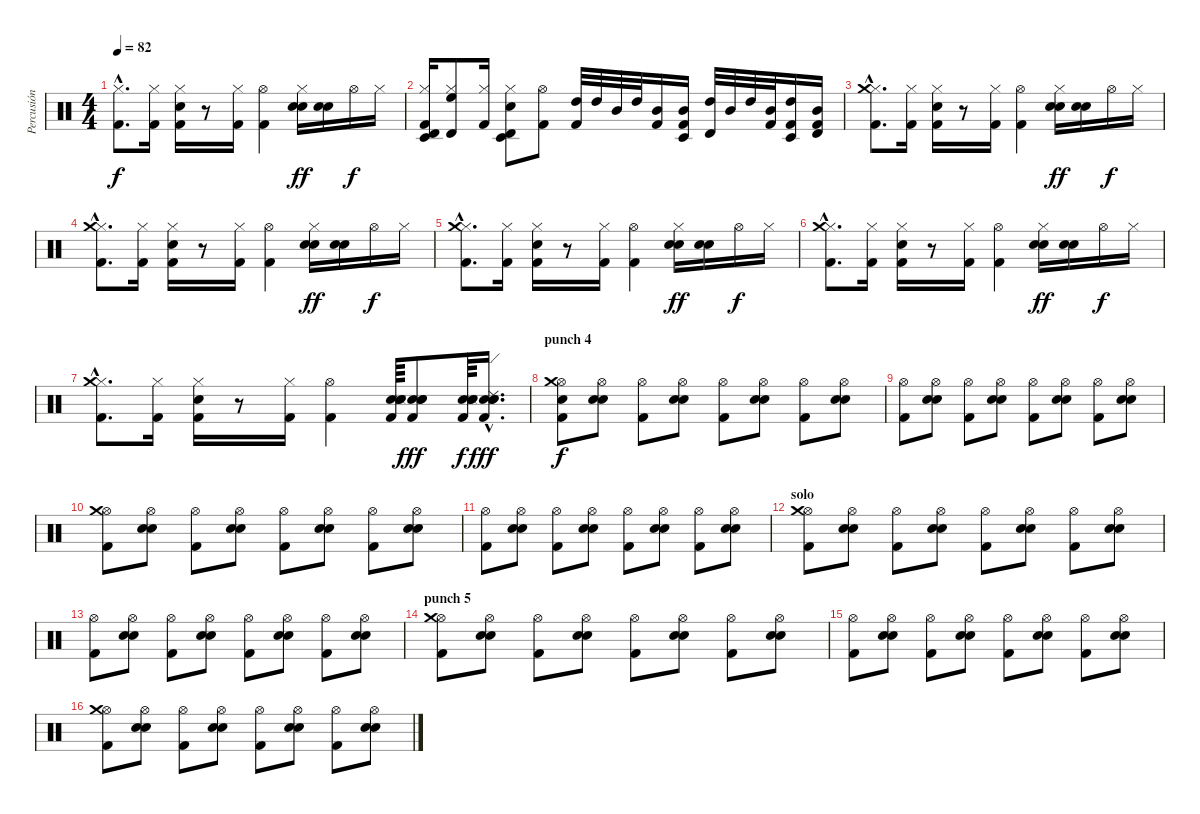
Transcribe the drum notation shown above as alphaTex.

\track ("Percusión" "Percusión") {instrument percussion}
\staff {score}
\articulation defaults
\ts (4 4)
\tempo 82
\clef neutral
\ks c
("Hi-Hat (closed)"{hac} "Kick (hit) 2"{hac}).8{d dy f} ("Hi-Hat (closed)" "Kick (hit) 2").16 ("Hi-Hat (closed)" "Electric Snare (hit)" "Kick (hit) 2").16 r.8 ("Hi-Hat (closed)" "Kick (hit) 2").16 ("Hi-Hat (open)" "Kick (hit) 2").4 ("Hi-Hat (closed)" "Electric Snare (hit)" "Electric Snare (hit)").16{dy ff} ("Electric Snare (hit)" "Electric Snare (hit)").16 "Hi-Hat (open)".16{dy f} "Hi-Hat (closed)".16 |
("Hi-Hat (closed)" "Timbale high (hit)" "Timbale low (hit)" "Kick (hit) 2").16 ("Hi-Hat (closed)" "Timbale high (hit)" "High Floor Tom (hit)").8 ("Hi-Hat (closed)" "Kick (hit) 2").16 ("Hi-Hat (closed)" "Timbale high (hit)" "Timbale low (hit)" "Snare (hit) 2").8 ("Hi-Hat (open)" "Kick (hit) 2").8 ("High Tom (hit)" "Kick (hit) 2").32 "High Tom (hit)".32 "Mid Tom (hit)".32 "High Tom (hit)".32 ("Mid Tom (hit)" "Kick (hit) 2").16 ("Timbale low (hit)" "Mid Tom (hit)" "Kick (hit) 2").16 ("Timbale high (hit)" "High Tom (hit)").32 "Mid Tom (hit)".32 "High Tom (hit)".32 ("Mid Tom (hit)" "Kick (hit) 2").32 ("Timbale low (hit)" "High Tom (hit)" "Kick (hit) 2").16 ("Timbale high (hit)" "Mid Tom (hit)" "Kick (hit) 2").16 |
("Hi-Hat (closed)"{hac} "Crash medium (hit)"{hac} "Kick (hit) 2"{hac}).8{d} ("Hi-Hat (closed)" "Kick (hit) 2").16 ("Hi-Hat (closed)" "Electric Snare (hit)" "Kick (hit) 2").16 r.8 ("Hi-Hat (closed)" "Kick (hit) 2").16 ("Hi-Hat (open)" "Kick (hit) 2").4 ("Hi-Hat (closed)" "Electric Snare (hit)" "Electric Snare (hit)").16{dy ff} ("Electric Snare (hit)" "Electric Snare (hit)").16 "Hi-Hat (open)".16{dy f} "Hi-Hat (closed)".16 |
("Hi-Hat (closed)"{hac} "Crash medium (hit)"{hac} "Kick (hit) 2"{hac}).8{d} ("Hi-Hat (closed)" "Kick (hit) 2").16 ("Hi-Hat (closed)" "Electric Snare (hit)" "Kick (hit) 2").16 r.8 ("Hi-Hat (closed)" "Kick (hit) 2").16 ("Hi-Hat (open)" "Kick (hit) 2").4 ("Hi-Hat (closed)" "Electric Snare (hit)" "Electric Snare (hit)").16{dy ff} ("Electric Snare (hit)" "Electric Snare (hit)").16 "Hi-Hat (open)".16{dy f} "Hi-Hat (closed)".16 |
("Hi-Hat (closed)"{hac} "Crash medium (hit)"{hac} "Kick (hit) 2"{hac}).8{d} ("Hi-Hat (closed)" "Kick (hit) 2").16 ("Hi-Hat (closed)" "Electric Snare (hit)" "Kick (hit) 2").16 r.8 ("Hi-Hat (closed)" "Kick (hit) 2").16 ("Hi-Hat (open)" "Kick (hit) 2").4 ("Hi-Hat (closed)" "Electric Snare (hit)" "Electric Snare (hit)").16{dy ff} ("Electric Snare (hit)" "Electric Snare (hit)").16 "Hi-Hat (open)".16{dy f} "Hi-Hat (closed)".16 |
("Hi-Hat (closed)"{hac} "Crash medium (hit)"{hac} "Kick (hit) 2"{hac}).8{d} ("Hi-Hat (closed)" "Kick (hit) 2").16 ("Hi-Hat (closed)" "Electric Snare (hit)" "Kick (hit) 2").16 r.8 ("Hi-Hat (closed)" "Kick (hit) 2").16 ("Hi-Hat (open)" "Kick (hit) 2").4 ("Hi-Hat (closed)" "Electric Snare (hit)" "Electric Snare (hit)").16{dy ff} ("Electric Snare (hit)" "Electric Snare (hit)").16 "Hi-Hat (open)".16{dy f} "Hi-Hat (closed)".16 |
("Hi-Hat (closed)"{hac} "Crash medium (hit)"{hac} "Kick (hit) 2"{hac}).8{d} ("Hi-Hat (closed)" "Kick (hit) 2").16 ("Hi-Hat (closed)" "Electric Snare (hit)" "Kick (hit) 2").16 r.8 ("Hi-Hat (closed)" "Kick (hit) 2").16 ("Hi-Hat (open)" "Kick (hit) 2").4 ("Snare (hit) 2" "Electric Snare (hit)" "Kick (hit) 2" "Snare (side stick) 3" "Electric Snare (hit)").64 ("Snare (hit) 2" "Electric Snare (hit)" "Kick (hit) 2" "Electric Snare (hit)").8{dy fff} ("Snare (hit) 2" "Electric Snare (hit)" "Kick (hit) 2" "Snare (side stick) 3" "Electric Snare (hit)").64{dy f} ("Snare (hit) 2"{hac} "Electric Snare (hit)"{hac} "Kick (hit) 2"{hac} "Electric Snare (hit)"{hac} "Ride (edge) 2"{hac}).16{d dy fff} |
\section ("" "punch 4")
("Hi-Hat (open)" "Crash medium (hit)" "Snare (hit) 2" "Kick (hit) 2").8{dy f} ("Snare (hit) 2" "Electric Snare (hit)" "Hi-Hat (open)").8 ("Hi-Hat (open)" "Kick (hit) 2").8 ("Snare (hit) 2" "Electric Snare (hit)" "Hi-Hat (open)").8 ("Hi-Hat (open)" "Kick (hit) 2").8 ("Snare (hit) 2" "Electric Snare (hit)" "Hi-Hat (open)").8 ("Hi-Hat (open)" "Kick (hit) 2").8 ("Snare (hit) 2" "Electric Snare (hit)" "Hi-Hat (open)").8 |
("Hi-Hat (open)" "Kick (hit) 2").8 ("Snare (hit) 2" "Electric Snare (hit)" "Hi-Hat (open)").8 ("Hi-Hat (open)" "Kick (hit) 2").8 ("Snare (hit) 2" "Electric Snare (hit)" "Hi-Hat (open)").8 ("Hi-Hat (open)" "Kick (hit) 2").8 ("Snare (hit) 2" "Electric Snare (hit)" "Hi-Hat (open)").8 ("Hi-Hat (open)" "Kick (hit) 2").8 ("Snare (hit) 2" "Electric Snare (hit)" "Hi-Hat (open)").8 |
("Hi-Hat (open)" "Crash medium (hit)" "Kick (hit) 2").8 ("Snare (hit) 2" "Electric Snare (hit)" "Hi-Hat (open)").8 ("Hi-Hat (open)" "Kick (hit) 2").8 ("Snare (hit) 2" "Electric Snare (hit)" "Hi-Hat (open)").8 ("Hi-Hat (open)" "Kick (hit) 2").8 ("Snare (hit) 2" "Electric Snare (hit)" "Hi-Hat (open)").8 ("Hi-Hat (open)" "Kick (hit) 2").8 ("Snare (hit) 2" "Electric Snare (hit)" "Hi-Hat (open)").8 |
("Hi-Hat (open)" "Kick (hit) 2").8 ("Snare (hit) 2" "Electric Snare (hit)" "Hi-Hat (open)").8 ("Hi-Hat (open)" "Kick (hit) 2").8 ("Snare (hit) 2" "Electric Snare (hit)" "Hi-Hat (open)").8 ("Hi-Hat (open)" "Kick (hit) 2").8 ("Snare (hit) 2" "Electric Snare (hit)" "Hi-Hat (open)").8 ("Hi-Hat (open)" "Kick (hit) 2").8 ("Snare (hit) 2" "Electric Snare (hit)" "Hi-Hat (open)").8 |
\section ("" "solo")
("Hi-Hat (open)" "Crash medium (hit)" "Kick (hit) 2").8 ("Snare (hit) 2" "Electric Snare (hit)" "Hi-Hat (open)").8 ("Hi-Hat (open)" "Kick (hit) 2").8 ("Snare (hit) 2" "Electric Snare (hit)" "Hi-Hat (open)").8 ("Hi-Hat (open)" "Kick (hit) 2").8 ("Snare (hit) 2" "Electric Snare (hit)" "Hi-Hat (open)").8 ("Hi-Hat (open)" "Kick (hit) 2").8 ("Snare (hit) 2" "Electric Snare (hit)" "Hi-Hat (open)").8 |
("Hi-Hat (open)" "Kick (hit) 2").8 ("Snare (hit) 2" "Electric Snare (hit)" "Hi-Hat (open)").8 ("Hi-Hat (open)" "Kick (hit) 2").8 ("Snare (hit) 2" "Electric Snare (hit)" "Hi-Hat (open)").8 ("Hi-Hat (open)" "Kick (hit) 2").8 ("Snare (hit) 2" "Electric Snare (hit)" "Hi-Hat (open)").8 ("Hi-Hat (open)" "Kick (hit) 2").8 ("Snare (hit) 2" "Electric Snare (hit)" "Hi-Hat (open)").8 |
\section ("" "punch 5")
("Hi-Hat (open)" "Crash medium (hit)" "Kick (hit) 2").8 ("Snare (hit) 2" "Electric Snare (hit)" "Hi-Hat (open)").8 ("Hi-Hat (open)" "Kick (hit) 2").8 ("Snare (hit) 2" "Electric Snare (hit)" "Hi-Hat (open)").8 ("Hi-Hat (open)" "Kick (hit) 2").8 ("Snare (hit) 2" "Electric Snare (hit)" "Hi-Hat (open)").8 ("Hi-Hat (open)" "Kick (hit) 2").8 ("Snare (hit) 2" "Electric Snare (hit)" "Hi-Hat (open)").8 |
("Hi-Hat (open)" "Kick (hit) 2").8 ("Snare (hit) 2" "Electric Snare (hit)" "Hi-Hat (open)").8 ("Hi-Hat (open)" "Kick (hit) 2").8 ("Snare (hit) 2" "Electric Snare (hit)" "Hi-Hat (open)").8 ("Hi-Hat (open)" "Kick (hit) 2").8 ("Snare (hit) 2" "Electric Snare (hit)" "Hi-Hat (open)").8 ("Hi-Hat (open)" "Kick (hit) 2").8 ("Snare (hit) 2" "Electric Snare (hit)" "Hi-Hat (open)").8 |
("Hi-Hat (open)" "Crash medium (hit)" "Kick (hit) 2").8 ("Snare (hit) 2" "Electric Snare (hit)" "Hi-Hat (open)").8 ("Hi-Hat (open)" "Kick (hit) 2").8 ("Snare (hit) 2" "Electric Snare (hit)" "Hi-Hat (open)").8 ("Hi-Hat (open)" "Kick (hit) 2").8 ("Snare (hit) 2" "Electric Snare (hit)" "Hi-Hat (open)").8 ("Hi-Hat (open)" "Kick (hit) 2").8 ("Snare (hit) 2" "Electric Snare (hit)" "Hi-Hat (open)").8
